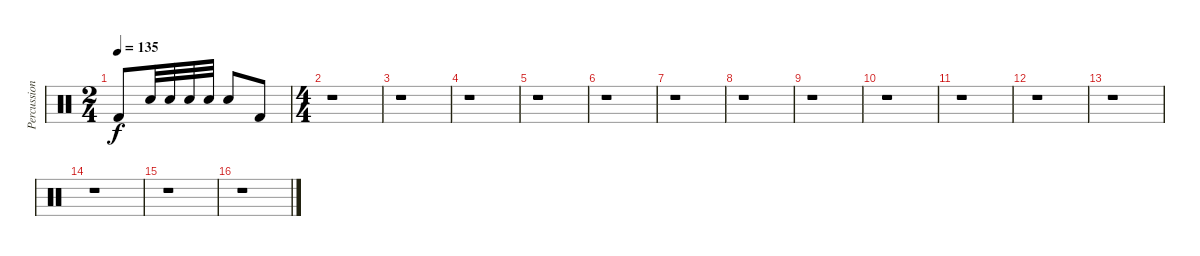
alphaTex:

\track ("Percussion" "Percussion") {instrument percussion}
\staff {score}
\articulation defaults
\ts (2 4)
\tempo 135
\clef neutral
\ks c "Kick (hit) 2".8{dy f} "Snare (hit) 2".32 "Snare (hit) 2".32 "Snare (hit) 2".32 "Snare (hit) 2".32 "Snare (hit) 2".8 "Kick (hit) 2".8
|
\ts (4 4)
r.1 |
r.1 |
r.1 |
r.1 |
r.1 |
r.1 |
r.1 |
r.1 |
r.1 |
r.1 |
r.1 |
r.1 |
r.1 |
r.1 |
r.1
